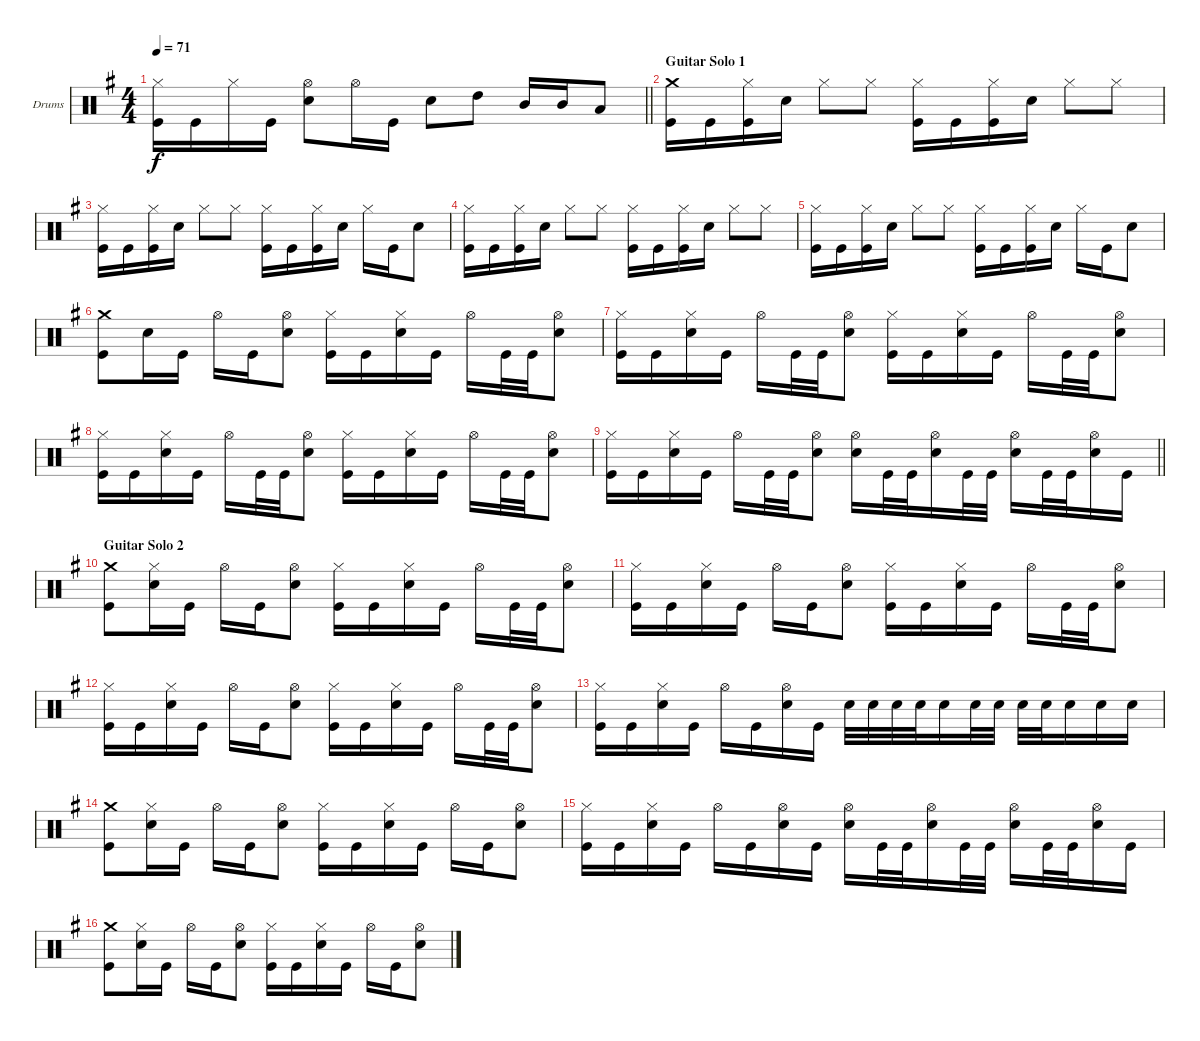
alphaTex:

\bracketExtendMode groupsimilarinstruments
\firstSystemTrackNameOrientation horizontal
\otherSystemsTrackNameOrientation horizontal
\track ("Барабаны" "Drums") {instrument percussion}
\staff {score}
\articulation defaults
\ts (4 4)
\tempo 71
\clef neutral
\barLineRight lightlight
\ks eminor
("Kick (hit)" "Hi-Hat (closed)").16{dy f} "Kick (hit)".16 "Hi-Hat (closed)".16 "Kick (hit)".16 ("Snare (hit) 2" "Hi-Hat (open)").8 "Hi-Hat (open)".16 "Kick (hit)".16 "Snare (hit) 2".8 "High Tom (hit)".8 "Mid Tom (hit)".16 "Mid Tom (hit)".16 "Low Tom (hit)".8 |
\section ("" "Guitar Solo 1")
("Kick (hit)" "Crash medium (hit)").16 "Kick (hit)".16 ("Kick (hit)" "Hi-Hat (closed)").16 "Snare (hit) 2".16 "Hi-Hat (closed)".8 "Hi-Hat (closed)".8 ("Kick (hit)" "Hi-Hat (closed)").16 "Kick (hit)".16 ("Kick (hit)" "Hi-Hat (closed)").16 "Snare (hit) 2".16 "Hi-Hat (closed)".8 "Hi-Hat (closed)".8 |
("Kick (hit)" "Hi-Hat (closed)").16 "Kick (hit)".16 ("Kick (hit)" "Hi-Hat (closed)").16 "Snare (hit) 2".16 "Hi-Hat (closed)".8 "Hi-Hat (closed)".8 ("Kick (hit)" "Hi-Hat (closed)").16 "Kick (hit)".16 ("Kick (hit)" "Hi-Hat (closed)").16 "Snare (hit) 2".16 "Hi-Hat (closed)".16 "Kick (hit)".16 "Snare (hit) 2".8 |
("Kick (hit)" "Hi-Hat (closed)").16 "Kick (hit)".16 ("Kick (hit)" "Hi-Hat (closed)").16 "Snare (hit) 2".16 "Hi-Hat (closed)".8 "Hi-Hat (closed)".8 ("Kick (hit)" "Hi-Hat (closed)").16 "Kick (hit)".16 ("Kick (hit)" "Hi-Hat (closed)").16 "Snare (hit) 2".16 "Hi-Hat (closed)".8 "Hi-Hat (closed)".8 |
("Kick (hit)" "Hi-Hat (closed)").16 "Kick (hit)".16 ("Kick (hit)" "Hi-Hat (closed)").16 "Snare (hit) 2".16 "Hi-Hat (closed)".8 "Hi-Hat (closed)".8 ("Kick (hit)" "Hi-Hat (closed)").16 "Kick (hit)".16 ("Kick (hit)" "Hi-Hat (closed)").16 "Snare (hit) 2".16 "Hi-Hat (closed)".16 "Kick (hit)".16 "Snare (hit) 2".8 |
("Kick (hit)" "Crash medium (hit)").8 "Snare (hit) 2".16 "Kick (hit)".16 "Hi-Hat (open)".16 "Kick (hit)".16 ("Snare (hit) 2" "Hi-Hat (open)").8 ("Kick (hit)" "Hi-Hat (closed)").16 "Kick (hit)".16 ("Snare (hit) 2" "Hi-Hat (closed)").16 "Kick (hit)".16 "Hi-Hat (open)".16 "Kick (hit)".32 "Kick (hit)".32 ("Snare (hit) 2" "Hi-Hat (open)").8 |
("Kick (hit)" "Hi-Hat (closed)").16 "Kick (hit)".16 ("Snare (hit) 2" "Hi-Hat (closed)").16 "Kick (hit)".16 "Hi-Hat (open)".16 "Kick (hit)".32 "Kick (hit)".32 ("Snare (hit) 2" "Hi-Hat (open)").8 ("Kick (hit)" "Hi-Hat (closed)").16 "Kick (hit)".16 ("Snare (hit) 2" "Hi-Hat (closed)").16 "Kick (hit)".16 "Hi-Hat (open)".16 "Kick (hit)".32 "Kick (hit)".32 ("Snare (hit) 2" "Hi-Hat (open)").8 |
("Kick (hit)" "Hi-Hat (closed)").16 "Kick (hit)".16 ("Snare (hit) 2" "Hi-Hat (closed)").16 "Kick (hit)".16 "Hi-Hat (open)".16 "Kick (hit)".32 "Kick (hit)".32 ("Snare (hit) 2" "Hi-Hat (open)").8 ("Kick (hit)" "Hi-Hat (closed)").16 "Kick (hit)".16 ("Snare (hit) 2" "Hi-Hat (closed)").16 "Kick (hit)".16 "Hi-Hat (open)".16 "Kick (hit)".32 "Kick (hit)".32 ("Snare (hit) 2" "Hi-Hat (open)").8 |
\barLineRight lightlight
("Kick (hit)" "Hi-Hat (closed)").16 "Kick (hit)".16 ("Snare (hit) 2" "Hi-Hat (closed)").16 "Kick (hit)".16 "Hi-Hat (open)".16 "Kick (hit)".32 "Kick (hit)".32 ("Snare (hit) 2" "Hi-Hat (open)").8 ("Snare (hit) 2" "Hi-Hat (open)").16 "Kick (hit)".32 "Kick (hit)".32 ("Snare (hit) 2" "Hi-Hat (open)").16 "Kick (hit)".32 "Kick (hit)".32 ("Snare (hit) 2" "Hi-Hat (open)").16 "Kick (hit)".32 "Kick (hit)".32 ("Snare (hit) 2" "Hi-Hat (open)").16 "Kick (hit)".16 |
\section ("" "Guitar Solo 2")
("Kick (hit)" "Crash medium (hit)").8 ("Snare (hit) 2" "Hi-Hat (closed)").16 "Kick (hit)".16 "Hi-Hat (open)".16 "Kick (hit)".16 ("Snare (hit) 2" "Hi-Hat (open)").8 ("Kick (hit)" "Hi-Hat (closed)").16 "Kick (hit)".16 ("Snare (hit) 2" "Hi-Hat (closed)").16 "Kick (hit)".16 "Hi-Hat (open)".16 "Kick (hit)".32 "Kick (hit)".32 ("Snare (hit) 2" "Hi-Hat (open)").8 |
("Kick (hit)" "Hi-Hat (closed)").16 "Kick (hit)".16 ("Snare (hit) 2" "Hi-Hat (closed)").16 "Kick (hit)".16 "Hi-Hat (open)".16 "Kick (hit)".16 ("Snare (hit) 2" "Hi-Hat (open)").8 ("Kick (hit)" "Hi-Hat (closed)").16 "Kick (hit)".16 ("Snare (hit) 2" "Hi-Hat (closed)").16 "Kick (hit)".16 "Hi-Hat (open)".16 "Kick (hit)".32 "Kick (hit)".32 ("Snare (hit) 2" "Hi-Hat (open)").8 |
("Kick (hit)" "Hi-Hat (closed)").16 "Kick (hit)".16 ("Snare (hit) 2" "Hi-Hat (closed)").16 "Kick (hit)".16 "Hi-Hat (open)".16 "Kick (hit)".16 ("Snare (hit) 2" "Hi-Hat (open)").8 ("Kick (hit)" "Hi-Hat (closed)").16 "Kick (hit)".16 ("Snare (hit) 2" "Hi-Hat (closed)").16 "Kick (hit)".16 "Hi-Hat (open)".16 "Kick (hit)".32 "Kick (hit)".32 ("Snare (hit) 2" "Hi-Hat (open)").8 |
("Kick (hit)" "Hi-Hat (closed)").16 "Kick (hit)".16 ("Snare (hit) 2" "Hi-Hat (closed)").16 "Kick (hit)".16 "Hi-Hat (open)".16 "Kick (hit)".16 ("Snare (hit) 2" "Hi-Hat (open)").16 "Kick (hit)".16 "Snare (hit) 2".32 "Snare (hit) 2".32 "Snare (hit) 2".32 "Snare (hit) 2".32 "Snare (hit) 2".16 "Snare (hit) 2".32 "Snare (hit) 2".32 "Snare (hit) 2".32 "Snare (hit) 2".32 "Snare (hit) 2".16 "Snare (hit) 2".16 "Snare (hit) 2".16 |
("Kick (hit)" "Crash medium (hit)").8 ("Snare (hit) 2" "Hi-Hat (closed)").16 "Kick (hit)".16 "Hi-Hat (open)".16 "Kick (hit)".16 ("Snare (hit) 2" "Hi-Hat (open)").8 ("Kick (hit)" "Hi-Hat (closed)").16 "Kick (hit)".16 ("Snare (hit) 2" "Hi-Hat (closed)").16 "Kick (hit)".16 "Hi-Hat (open)".16 "Kick (hit)".16 ("Snare (hit) 2" "Hi-Hat (open)").8 |
("Kick (hit)" "Hi-Hat (closed)").16 "Kick (hit)".16 ("Snare (hit) 2" "Hi-Hat (closed)").16 "Kick (hit)".16 "Hi-Hat (open)".16 "Kick (hit)".16 ("Snare (hit) 2" "Hi-Hat (open)").16 "Kick (hit)".16 ("Snare (hit) 2" "Hi-Hat (open)").16 "Kick (hit)".32 "Kick (hit)".32 ("Snare (hit) 2" "Hi-Hat (open)").16 "Kick (hit)".32 "Kick (hit)".32 ("Snare (hit) 2" "Hi-Hat (open)").16 "Kick (hit)".32 "Kick (hit)".32 ("Snare (hit) 2" "Hi-Hat (open)").16 "Kick (hit)".16 |
("Kick (hit)" "Crash medium (hit)").8 ("Snare (hit) 2" "Hi-Hat (closed)").16 "Kick (hit)".16 "Hi-Hat (open)".16 "Kick (hit)".16 ("Snare (hit) 2" "Hi-Hat (open)").8 ("Kick (hit)" "Hi-Hat (closed)").16 "Kick (hit)".16 ("Snare (hit) 2" "Hi-Hat (closed)").16 "Kick (hit)".16 "Hi-Hat (open)".16 "Kick (hit)".16 ("Snare (hit) 2" "Hi-Hat (open)").8
